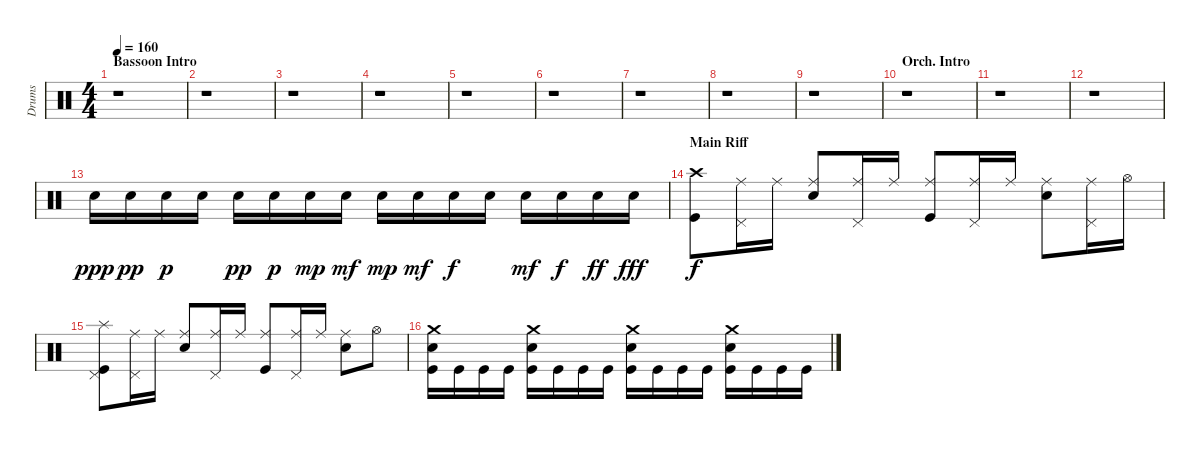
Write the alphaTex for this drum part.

\track ("Drums" "Drums") {instrument percussion}
\staff {score}
\articulation defaults
\ts (4 4)
\section ("" "Bassoon Intro")
\tempo 160
\clef neutral
\ks c
r.1{dy ppp} |
r.1 |
r.1 |
r.1 |
r.1 |
r.1 |
r.1 |
r.1 |
r.1 |
\section ("" "Orch. Intro")
r.1 |
r.1 |
r.1 |
"Electric Snare (hit)".16 "Electric Snare (hit)".16{dy pp} "Electric Snare (hit)".16{dy p} "Electric Snare (hit)".16 "Electric Snare (hit)".16{dy pp} "Electric Snare (hit)".16{dy p} "Electric Snare (hit)".16{dy mp} "Electric Snare (hit)".16{dy mf} "Electric Snare (hit)".16{dy mp} "Electric Snare (hit)".16{dy mf} "Electric Snare (hit)".16{dy f} "Electric Snare (hit)".16 "Electric Snare (hit)".16{dy mf} "Electric Snare (hit)".16{dy f} "Electric Snare (hit)".16{dy ff} "Electric Snare (hit)".16{dy fff} |
\section ("" "Main Riff")
("Crash high (hit)" "Kick (hit)").8{dy f} ("Ride (middle)" "Pedal Hi-Hat (hit)").16 "Ride (middle)".16 ("Ride (middle)" "Electric Snare (hit)").8 ("Ride (middle)" "Pedal Hi-Hat (hit)").16 "Ride (middle)".16 ("Ride (middle)" "Kick (hit)").8 ("Ride (middle)" "Pedal Hi-Hat (hit)").16 "Ride (middle)".16 ("Ride (middle)" "Electric Snare (hit)").8 ("Ride (middle)" "Pedal Hi-Hat (hit)").16 "Hi-Hat (open)".16 |
("Splash (hit)" "Pedal Hi-Hat (hit)" "Kick (hit)").8 ("Ride (middle)" "Pedal Hi-Hat (hit)").16 "Ride (middle)".16 ("Ride (middle)" "Electric Snare (hit)").8 ("Ride (middle)" "Pedal Hi-Hat (hit)").16 "Ride (middle)".16 ("Ride (middle)" "Kick (hit)").8 ("Ride (middle)" "Pedal Hi-Hat (hit)").16 "Ride (middle)".16 ("Ride (middle)" "Electric Snare (hit)").8 "Hi-Hat (open)".8 |
("Crash medium (hit)" "Electric Snare (hit)" "Kick (hit)").16 "Kick (hit)".16 "Kick (hit)".16 "Kick (hit)".16 ("Crash medium (hit)" "Electric Snare (hit)" "Kick (hit)").16 "Kick (hit)".16 "Kick (hit)".16 "Kick (hit)".16 ("Crash medium (hit)" "Electric Snare (hit)" "Kick (hit)").16 "Kick (hit)".16 "Kick (hit)".16 "Kick (hit)".16 ("Crash medium (hit)" "Electric Snare (hit)" "Kick (hit)").16 "Kick (hit)".16 "Kick (hit)".16 "Kick (hit)".16
